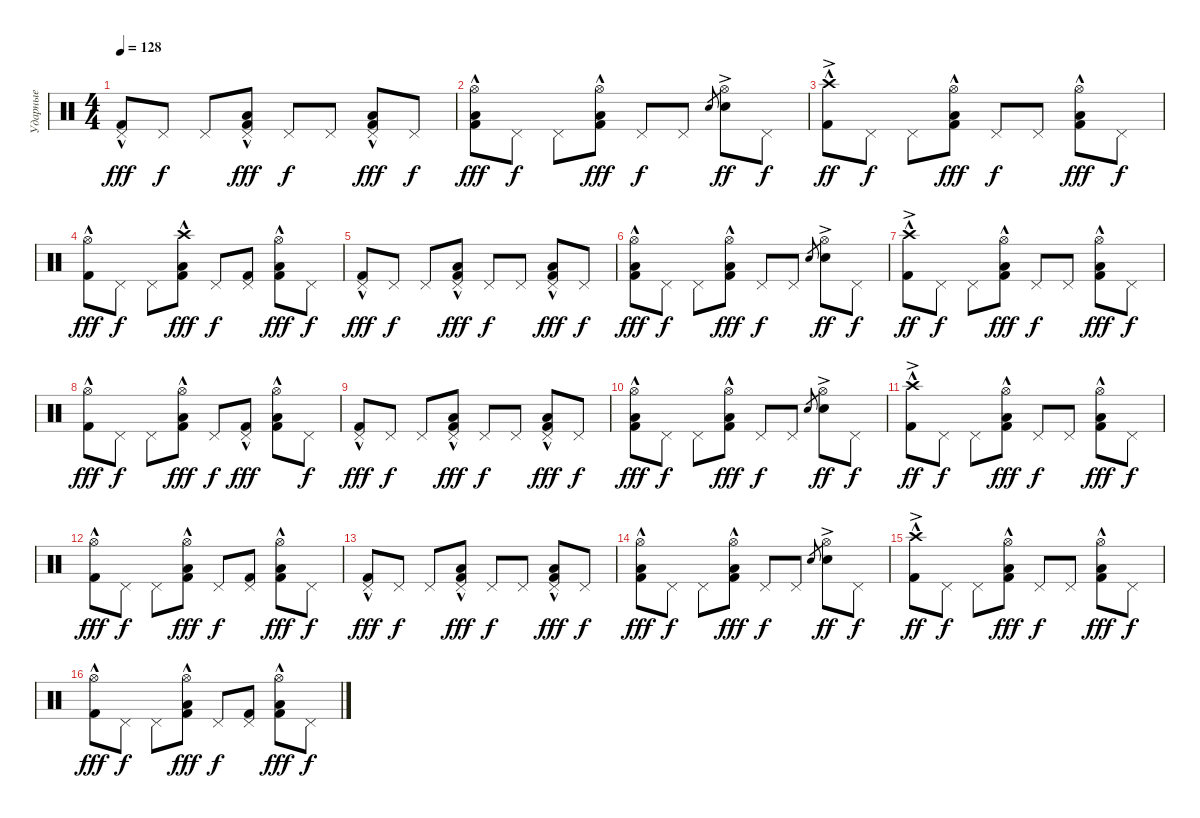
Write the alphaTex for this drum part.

\track ("Ударные" "Ударные") {instrument percussion}
\staff {score}
\articulation defaults
\ts (4 4)
\tempo 128
\clef neutral
\ks c
("Kick (hit) 2"{hac} "Pedal Hi-Hat (hit)").8{dy fff} "Pedal Hi-Hat (hit)".8{dy f} "Pedal Hi-Hat (hit)".8 ("Kick (hit) 2"{hac} "Low Floor Tom (hit)"{hac} "Pedal Hi-Hat (hit)").8{dy fff} "Pedal Hi-Hat (hit)".8{dy f} "Pedal Hi-Hat (hit)".8 ("Kick (hit) 2"{hac} "Low Floor Tom (hit)"{hac} "Pedal Hi-Hat (hit)").8{dy fff} "Pedal Hi-Hat (hit)".8{dy f} |
("Kick (hit) 2"{hac} "Low Floor Tom (hit)"{hac} "Hi-Hat (open)").8{dy fff} "Pedal Hi-Hat (hit)".8{dy f} "Pedal Hi-Hat (hit)".8 ("Kick (hit) 2"{hac} "Low Floor Tom (hit)"{hac} "Hi-Hat (open)").8{dy fff} "Pedal Hi-Hat (hit)".8{dy f} "Pedal Hi-Hat (hit)".8 "Snare (hit) 2".8{gr} ("Snare (hit) 2"{ac} "Hi-Hat (open)").8{dy ff} "Pedal Hi-Hat (hit)".8{dy f} |
("Kick (hit) 2"{hac} "Crash high (hit)"{ac}).8{dy ff} "Pedal Hi-Hat (hit)".8{dy f} "Pedal Hi-Hat (hit)".8 ("Kick (hit) 2"{hac} "Low Floor Tom (hit)"{hac} "Hi-Hat (open)").8{dy fff} "Pedal Hi-Hat (hit)".8{dy f} "Pedal Hi-Hat (hit)".8 ("Kick (hit) 2"{hac} "Low Floor Tom (hit)"{hac} "Hi-Hat (open)").8{dy fff} "Pedal Hi-Hat (hit)".8{dy f} |
("Kick (hit) 2"{hac} "Hi-Hat (open)").8{dy fff} "Pedal Hi-Hat (hit)".8{dy f} "Pedal Hi-Hat (hit)".8 ("Kick (hit) 2"{hac} "Low Floor Tom (hit)"{hac} "Crash high (hit)").8{dy fff} "Pedal Hi-Hat (hit)".8{dy f} ("Kick (hit) 2" "Pedal Hi-Hat (hit)").8 ("Kick (hit) 2"{hac} "Low Floor Tom (hit)"{hac} "Hi-Hat (open)").8{dy fff} "Pedal Hi-Hat (hit)".8{dy f} |
("Kick (hit) 2"{hac} "Pedal Hi-Hat (hit)").8{dy fff} "Pedal Hi-Hat (hit)".8{dy f} "Pedal Hi-Hat (hit)".8 ("Kick (hit) 2"{hac} "Low Floor Tom (hit)"{hac} "Pedal Hi-Hat (hit)").8{dy fff} "Pedal Hi-Hat (hit)".8{dy f} "Pedal Hi-Hat (hit)".8 ("Kick (hit) 2"{hac} "Low Floor Tom (hit)"{hac} "Pedal Hi-Hat (hit)").8{dy fff} "Pedal Hi-Hat (hit)".8{dy f} |
("Kick (hit) 2"{hac} "Low Floor Tom (hit)"{hac} "Hi-Hat (open)").8{dy fff} "Pedal Hi-Hat (hit)".8{dy f} "Pedal Hi-Hat (hit)".8 ("Kick (hit) 2"{hac} "Low Floor Tom (hit)"{hac} "Hi-Hat (open)").8{dy fff} "Pedal Hi-Hat (hit)".8{dy f} "Pedal Hi-Hat (hit)".8 "Snare (hit) 2".8{gr} ("Snare (hit) 2"{ac} "Hi-Hat (open)").8{dy ff} "Pedal Hi-Hat (hit)".8{dy f} |
("Kick (hit) 2"{hac} "Crash high (hit)"{ac}).8{dy ff} "Pedal Hi-Hat (hit)".8{dy f} "Pedal Hi-Hat (hit)".8 ("Kick (hit) 2"{hac} "Low Floor Tom (hit)"{hac} "Hi-Hat (open)").8{dy fff} "Pedal Hi-Hat (hit)".8{dy f} "Pedal Hi-Hat (hit)".8 ("Kick (hit) 2"{hac} "Low Floor Tom (hit)"{hac} "Hi-Hat (open)").8{dy fff} "Pedal Hi-Hat (hit)".8{dy f} |
("Kick (hit) 2"{hac} "Hi-Hat (open)").8{dy fff} "Pedal Hi-Hat (hit)".8{dy f} "Pedal Hi-Hat (hit)".8 ("Kick (hit) 2"{hac} "Low Floor Tom (hit)"{hac} "Hi-Hat (open)").8{dy fff} "Pedal Hi-Hat (hit)".8{dy f} ("Kick (hit) 2"{hac} "Pedal Hi-Hat (hit)").8{dy fff} ("Kick (hit) 2"{hac} "Low Floor Tom (hit)"{hac} "Hi-Hat (open)").8 "Pedal Hi-Hat (hit)".8{dy f} |
("Kick (hit) 2"{hac} "Pedal Hi-Hat (hit)").8{dy fff} "Pedal Hi-Hat (hit)".8{dy f} "Pedal Hi-Hat (hit)".8 ("Kick (hit) 2"{hac} "Low Floor Tom (hit)"{hac} "Pedal Hi-Hat (hit)").8{dy fff} "Pedal Hi-Hat (hit)".8{dy f} "Pedal Hi-Hat (hit)".8 ("Kick (hit) 2"{hac} "Low Floor Tom (hit)"{hac} "Pedal Hi-Hat (hit)").8{dy fff} "Pedal Hi-Hat (hit)".8{dy f} |
("Kick (hit) 2"{hac} "Low Floor Tom (hit)"{hac} "Hi-Hat (open)").8{dy fff} "Pedal Hi-Hat (hit)".8{dy f} "Pedal Hi-Hat (hit)".8 ("Kick (hit) 2"{hac} "Low Floor Tom (hit)"{hac} "Hi-Hat (open)").8{dy fff} "Pedal Hi-Hat (hit)".8{dy f} "Pedal Hi-Hat (hit)".8 "Snare (hit) 2".8{gr} ("Snare (hit) 2"{ac} "Hi-Hat (open)").8{dy ff} "Pedal Hi-Hat (hit)".8{dy f} |
("Kick (hit) 2"{hac} "Crash high (hit)"{ac}).8{dy ff} "Pedal Hi-Hat (hit)".8{dy f} "Pedal Hi-Hat (hit)".8 ("Kick (hit) 2"{hac} "Low Floor Tom (hit)"{hac} "Hi-Hat (open)").8{dy fff} "Pedal Hi-Hat (hit)".8{dy f} "Pedal Hi-Hat (hit)".8 ("Kick (hit) 2"{hac} "Low Floor Tom (hit)"{hac} "Hi-Hat (open)").8{dy fff} "Pedal Hi-Hat (hit)".8{dy f} |
("Kick (hit) 2"{hac} "Hi-Hat (open)").8{dy fff} "Pedal Hi-Hat (hit)".8{dy f} "Pedal Hi-Hat (hit)".8 ("Kick (hit) 2"{hac} "Low Floor Tom (hit)"{hac} "Hi-Hat (open)").8{dy fff} "Pedal Hi-Hat (hit)".8{dy f} ("Kick (hit) 2" "Pedal Hi-Hat (hit)").8 ("Kick (hit) 2"{hac} "Low Floor Tom (hit)"{hac} "Hi-Hat (open)").8{dy fff} "Pedal Hi-Hat (hit)".8{dy f} |
("Kick (hit) 2"{hac} "Pedal Hi-Hat (hit)").8{dy fff} "Pedal Hi-Hat (hit)".8{dy f} "Pedal Hi-Hat (hit)".8 ("Kick (hit) 2"{hac} "Low Floor Tom (hit)"{hac} "Pedal Hi-Hat (hit)").8{dy fff} "Pedal Hi-Hat (hit)".8{dy f} "Pedal Hi-Hat (hit)".8 ("Kick (hit) 2"{hac} "Low Floor Tom (hit)"{hac} "Pedal Hi-Hat (hit)").8{dy fff} "Pedal Hi-Hat (hit)".8{dy f} |
("Kick (hit) 2"{hac} "Low Floor Tom (hit)"{hac} "Hi-Hat (open)").8{dy fff} "Pedal Hi-Hat (hit)".8{dy f} "Pedal Hi-Hat (hit)".8 ("Kick (hit) 2"{hac} "Low Floor Tom (hit)"{hac} "Hi-Hat (open)").8{dy fff} "Pedal Hi-Hat (hit)".8{dy f} "Pedal Hi-Hat (hit)".8 "Snare (hit) 2".8{gr} ("Snare (hit) 2"{ac} "Hi-Hat (open)").8{dy ff} "Pedal Hi-Hat (hit)".8{dy f} |
("Kick (hit) 2"{hac} "Crash high (hit)"{ac}).8{dy ff} "Pedal Hi-Hat (hit)".8{dy f} "Pedal Hi-Hat (hit)".8 ("Kick (hit) 2"{hac} "Low Floor Tom (hit)"{hac} "Hi-Hat (open)").8{dy fff} "Pedal Hi-Hat (hit)".8{dy f} "Pedal Hi-Hat (hit)".8 ("Kick (hit) 2"{hac} "Low Floor Tom (hit)"{hac} "Hi-Hat (open)").8{dy fff} "Pedal Hi-Hat (hit)".8{dy f} |
("Kick (hit) 2"{hac} "Hi-Hat (open)").8{dy fff} "Pedal Hi-Hat (hit)".8{dy f} "Pedal Hi-Hat (hit)".8 ("Kick (hit) 2"{hac} "Low Floor Tom (hit)"{hac} "Hi-Hat (open)").8{dy fff} "Pedal Hi-Hat (hit)".8{dy f} ("Kick (hit) 2" "Pedal Hi-Hat (hit)").8 ("Kick (hit) 2"{hac} "Low Floor Tom (hit)"{hac} "Hi-Hat (open)").8{dy fff} "Pedal Hi-Hat (hit)".8{dy f}
